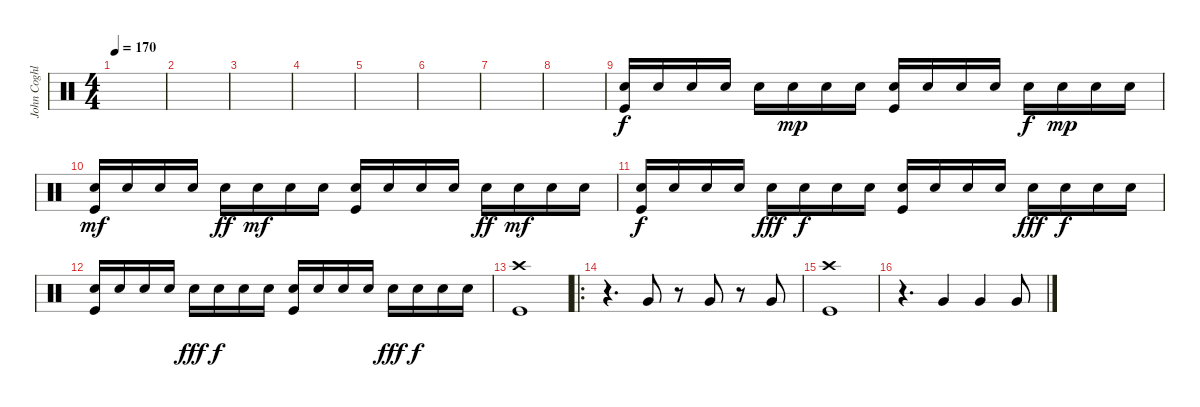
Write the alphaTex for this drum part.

\track ("John Coghlan" "John Coghl") {instrument percussion}
\staff {score}
\articulation defaults
\ts (4 4)
\tempo 170
\clef neutral
\ks c
|
|
|
|
|
|
|
|
("Electric Snare (hit)" "Kick (hit)").16 "Electric Snare (hit)".16 "Electric Snare (hit)".16 "Electric Snare (hit)".16 "Electric Snare (hit)".16{dy f} "Electric Snare (hit)".16{dy mp} "Electric Snare (hit)".16 "Electric Snare (hit)".16 ("Electric Snare (hit)" "Kick (hit)").16 "Electric Snare (hit)".16 "Electric Snare (hit)".16 "Electric Snare (hit)".16 "Electric Snare (hit)".16{dy f} "Electric Snare (hit)".16{dy mp} "Electric Snare (hit)".16 "Electric Snare (hit)".16 |
("Electric Snare (hit)" "Kick (hit)").16{dy mf} "Electric Snare (hit)".16 "Electric Snare (hit)".16 "Electric Snare (hit)".16 "Electric Snare (hit)".16{dy ff} "Electric Snare (hit)".16{dy mf} "Electric Snare (hit)".16 "Electric Snare (hit)".16 ("Electric Snare (hit)" "Kick (hit)").16 "Electric Snare (hit)".16 "Electric Snare (hit)".16 "Electric Snare (hit)".16 "Electric Snare (hit)".16{dy ff} "Electric Snare (hit)".16{dy mf} "Electric Snare (hit)".16 "Electric Snare (hit)".16 |
("Electric Snare (hit)" "Kick (hit)").16{dy f} "Electric Snare (hit)".16 "Electric Snare (hit)".16 "Electric Snare (hit)".16 "Electric Snare (hit)".16{dy fff} "Electric Snare (hit)".16{dy f} "Electric Snare (hit)".16 "Electric Snare (hit)".16 ("Electric Snare (hit)" "Kick (hit)").16 "Electric Snare (hit)".16 "Electric Snare (hit)".16 "Electric Snare (hit)".16 "Electric Snare (hit)".16{dy fff} "Electric Snare (hit)".16{dy f} "Electric Snare (hit)".16 "Electric Snare (hit)".16 |
("Electric Snare (hit)" "Kick (hit)").16 "Electric Snare (hit)".16 "Electric Snare (hit)".16 "Electric Snare (hit)".16 "Electric Snare (hit)".16{dy fff} "Electric Snare (hit)".16{dy f} "Electric Snare (hit)".16 "Electric Snare (hit)".16 ("Electric Snare (hit)" "Kick (hit)").16 "Electric Snare (hit)".16 "Electric Snare (hit)".16 "Electric Snare (hit)".16 "Electric Snare (hit)".16{dy fff} "Electric Snare (hit)".16{dy f} "Electric Snare (hit)".16 "Electric Snare (hit)".16 |
("Crash high (hit)" "Kick (hit)").1 |
\ro
r.4{d} "Very Low Tom (hit)".8 r.8 "Very Low Tom (hit)".8 r.8 "Very Low Tom (hit)".8 |
("Crash high (hit)" "Kick (hit)").1 |
r.4{d} "Very Low Tom (hit)".4 "Very Low Tom (hit)".4 "Very Low Tom (hit)".8
